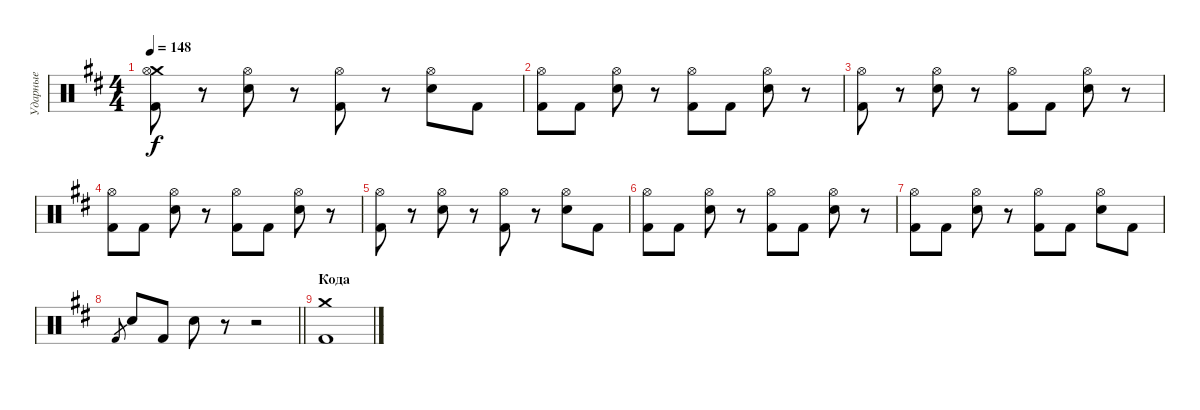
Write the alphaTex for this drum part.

\track ("Ударные" "Ударные") {instrument percussion}
\staff {score}
\articulation defaults
\ts (4 4)
\tempo 148
\clef neutral
\ks bminor
("Crash medium (hit)" "Kick (hit) 2" "Hi-Hat (open)").8{dy f} r.8 ("Electric Snare (hit)" "Hi-Hat (open)").8 r.8 ("Kick (hit) 2" "Hi-Hat (open)").8 r.8 ("Electric Snare (hit)" "Hi-Hat (open)").8 "Kick (hit) 2".8 |
("Kick (hit) 2" "Hi-Hat (open)").8 "Kick (hit) 2".8 ("Electric Snare (hit)" "Hi-Hat (open)").8 r.8 ("Kick (hit) 2" "Hi-Hat (open)").8 "Kick (hit) 2".8 ("Electric Snare (hit)" "Hi-Hat (open)").8 r.8 |
("Kick (hit) 2" "Hi-Hat (open)").8 r.8 ("Electric Snare (hit)" "Hi-Hat (open)").8 r.8 ("Kick (hit) 2" "Hi-Hat (open)").8 "Kick (hit) 2".8 ("Electric Snare (hit)" "Hi-Hat (open)").8 r.8 |
("Kick (hit) 2" "Hi-Hat (open)").8 "Kick (hit) 2".8 ("Electric Snare (hit)" "Hi-Hat (open)").8 r.8 ("Kick (hit) 2" "Hi-Hat (open)").8 "Kick (hit) 2".8 ("Electric Snare (hit)" "Hi-Hat (open)").8 r.8 |
("Kick (hit) 2" "Hi-Hat (open)").8 r.8 ("Electric Snare (hit)" "Hi-Hat (open)").8 r.8 ("Kick (hit) 2" "Hi-Hat (open)").8 r.8 ("Electric Snare (hit)" "Hi-Hat (open)").8 "Kick (hit) 2".8 |
("Kick (hit) 2" "Hi-Hat (open)").8 "Kick (hit) 2".8 ("Electric Snare (hit)" "Hi-Hat (open)").8 r.8 ("Kick (hit) 2" "Hi-Hat (open)").8 "Kick (hit) 2".8 ("Electric Snare (hit)" "Hi-Hat (open)").8 r.8 |
("Kick (hit) 2" "Hi-Hat (open)").8 "Kick (hit) 2".8 ("Electric Snare (hit)" "Hi-Hat (open)").8 r.8 ("Kick (hit) 2" "Hi-Hat (open)").8 "Kick (hit) 2".8 ("Electric Snare (hit)" "Hi-Hat (open)").8 "Kick (hit) 2".8 |
\barLineRight lightlight "Kick (hit) 2".8{gr} "Electric Snare (hit)".8 "Kick (hit) 2".8 "Electric Snare (hit)".8
r.8 r.2 |
\section ("" "Кода")
("Crash medium (hit)" "Kick (hit) 2").1
